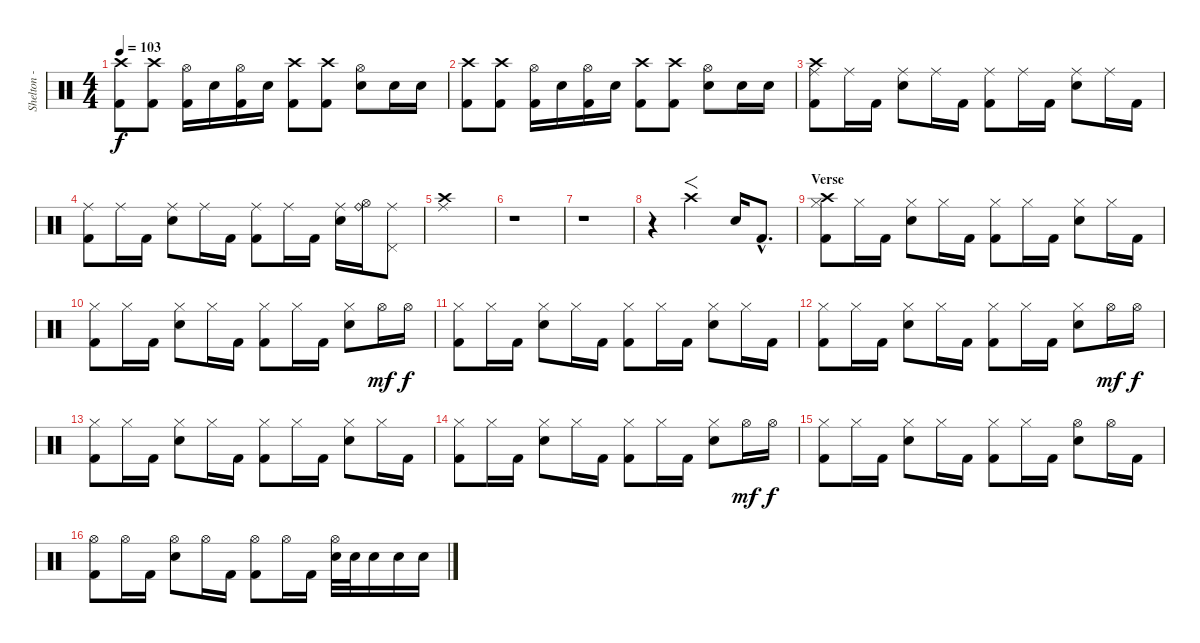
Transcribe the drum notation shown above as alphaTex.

\track ("Shelton - Drums" "Shelton - ") {instrument percussion}
\staff {score}
\articulation defaults
\ts (4 4)
\tempo 103
\clef neutral
\ks c
("Crash high (hit)" "Kick (hit) 2").8{dy f} ("Crash high (hit)" "Kick (hit) 2").8 ("Hi-Hat (open)" "Kick (hit) 2").16 "Electric Snare (hit)".16 ("Hi-Hat (open)" "Kick (hit) 2").16 "Electric Snare (hit)".16 ("Crash high (hit)" "Kick (hit) 2").8 ("Crash high (hit)" "Kick (hit) 2").8 ("Hi-Hat (open)" "Electric Snare (hit)").8 "Electric Snare (hit)".16 "Electric Snare (hit)".16 |
("Crash high (hit)" "Kick (hit) 2").8 ("Crash high (hit)" "Kick (hit) 2").8 ("Hi-Hat (open)" "Kick (hit) 2").16 "Electric Snare (hit)".16 ("Hi-Hat (open)" "Kick (hit) 2").16 "Electric Snare (hit)".16 ("Crash high (hit)" "Kick (hit) 2").8 ("Crash high (hit)" "Kick (hit) 2").8 ("Hi-Hat (open)" "Electric Snare (hit)").8 "Electric Snare (hit)".16 "Electric Snare (hit)".16 |
("Ride (middle)" "Crash high (hit)" "Kick (hit) 2").8 "Ride (middle)".16 "Kick (hit) 2".16 ("Ride (middle)" "Electric Snare (hit)").8 "Ride (middle)".16 "Kick (hit) 2".16 ("Ride (middle)" "Kick (hit) 2").8 "Ride (middle)".16 "Kick (hit) 2".16 ("Ride (middle)" "Electric Snare (hit)").8 "Ride (middle)".16 "Kick (hit) 2".16 |
("Ride (middle)" "Kick (hit) 2").8 "Ride (middle)".16 "Kick (hit) 2".16 ("Ride (middle)" "Electric Snare (hit)").8 "Ride (middle)".16 "Kick (hit) 2".16 ("Ride (middle)" "Kick (hit) 2").8 "Ride (middle)".16 "Kick (hit) 2".16 ("Ride (middle)" "Electric Snare (hit)").16 ("Ride (bell)" "Hi-Hat (open)").16 ("Ride (middle)" "Pedal Hi-Hat (hit)").8 |
("Ride (middle)" "Crash high (hit)").1 |
r.1 |
r.1 |
r.4 "Crash high (hit)".2{f} "Electric Snare (hit)".16 "Kick (hit) 2"{hac}.8{d} |
\section ("" "Verse")
("Hi-Hat (closed)" "Crash high (hit)" "Kick (hit) 2").8 "Hi-Hat (closed)".16 "Kick (hit) 2".16 ("Hi-Hat (closed)" "Electric Snare (hit)").8 "Hi-Hat (closed)".16 "Kick (hit) 2".16 ("Hi-Hat (closed)" "Kick (hit) 2").8 "Hi-Hat (closed)".16 "Kick (hit) 2".16 ("Hi-Hat (closed)" "Electric Snare (hit)").8 "Hi-Hat (closed)".16 "Kick (hit) 2".16 |
("Hi-Hat (closed)" "Kick (hit) 2").8 "Hi-Hat (closed)".16 "Kick (hit) 2".16 ("Hi-Hat (closed)" "Electric Snare (hit)").8 "Hi-Hat (closed)".16 "Kick (hit) 2".16 ("Hi-Hat (closed)" "Kick (hit) 2").8 "Hi-Hat (closed)".16 "Kick (hit) 2".16 ("Hi-Hat (closed)" "Electric Snare (hit)").8 "Hi-Hat (open)".16{dy mf} "Hi-Hat (open)".16{dy f} |
("Hi-Hat (closed)" "Kick (hit) 2").8 "Hi-Hat (closed)".16 "Kick (hit) 2".16 ("Hi-Hat (closed)" "Electric Snare (hit)").8 "Hi-Hat (closed)".16 "Kick (hit) 2".16 ("Hi-Hat (closed)" "Kick (hit) 2").8 "Hi-Hat (closed)".16 "Kick (hit) 2".16 ("Hi-Hat (closed)" "Electric Snare (hit)").8 "Hi-Hat (closed)".16 "Kick (hit) 2".16 |
("Hi-Hat (closed)" "Kick (hit) 2").8 "Hi-Hat (closed)".16 "Kick (hit) 2".16 ("Hi-Hat (closed)" "Electric Snare (hit)").8 "Hi-Hat (closed)".16 "Kick (hit) 2".16 ("Hi-Hat (closed)" "Kick (hit) 2").8 "Hi-Hat (closed)".16 "Kick (hit) 2".16 ("Hi-Hat (closed)" "Electric Snare (hit)").8 "Hi-Hat (open)".16{dy mf} "Hi-Hat (open)".16{dy f} |
("Hi-Hat (closed)" "Kick (hit) 2").8 "Hi-Hat (closed)".16 "Kick (hit) 2".16 ("Hi-Hat (closed)" "Electric Snare (hit)").8 "Hi-Hat (closed)".16 "Kick (hit) 2".16 ("Hi-Hat (closed)" "Kick (hit) 2").8 "Hi-Hat (closed)".16 "Kick (hit) 2".16 ("Hi-Hat (closed)" "Electric Snare (hit)").8 "Hi-Hat (closed)".16 "Kick (hit) 2".16 |
("Hi-Hat (closed)" "Kick (hit) 2").8 "Hi-Hat (closed)".16 "Kick (hit) 2".16 ("Hi-Hat (closed)" "Electric Snare (hit)").8 "Hi-Hat (closed)".16 "Kick (hit) 2".16 ("Hi-Hat (closed)" "Kick (hit) 2").8 "Hi-Hat (closed)".16 "Kick (hit) 2".16 ("Hi-Hat (closed)" "Electric Snare (hit)").8 "Hi-Hat (open)".16{dy mf} "Hi-Hat (open)".16{dy f} |
("Hi-Hat (closed)" "Kick (hit) 2").8 "Hi-Hat (closed)".16 "Kick (hit) 2".16 ("Hi-Hat (closed)" "Electric Snare (hit)").8 "Hi-Hat (closed)".16 "Kick (hit) 2".16 ("Hi-Hat (closed)" "Kick (hit) 2").8 "Hi-Hat (closed)".16 "Kick (hit) 2".16 ("Hi-Hat (open)" "Electric Snare (hit)").8 "Hi-Hat (open)".16 "Kick (hit) 2".16 |
("Hi-Hat (open)" "Kick (hit) 2").8 "Hi-Hat (open)".16 "Kick (hit) 2".16 ("Hi-Hat (open)" "Electric Snare (hit)").8 "Hi-Hat (open)".16 "Kick (hit) 2".16 ("Hi-Hat (open)" "Kick (hit) 2").8 "Hi-Hat (open)".16 "Kick (hit) 2".16 ("Hi-Hat (open)" "Electric Snare (hit)").32 "Electric Snare (hit)".32 "Electric Snare (hit)".16 "Electric Snare (hit)".16 "Electric Snare (hit)".16
